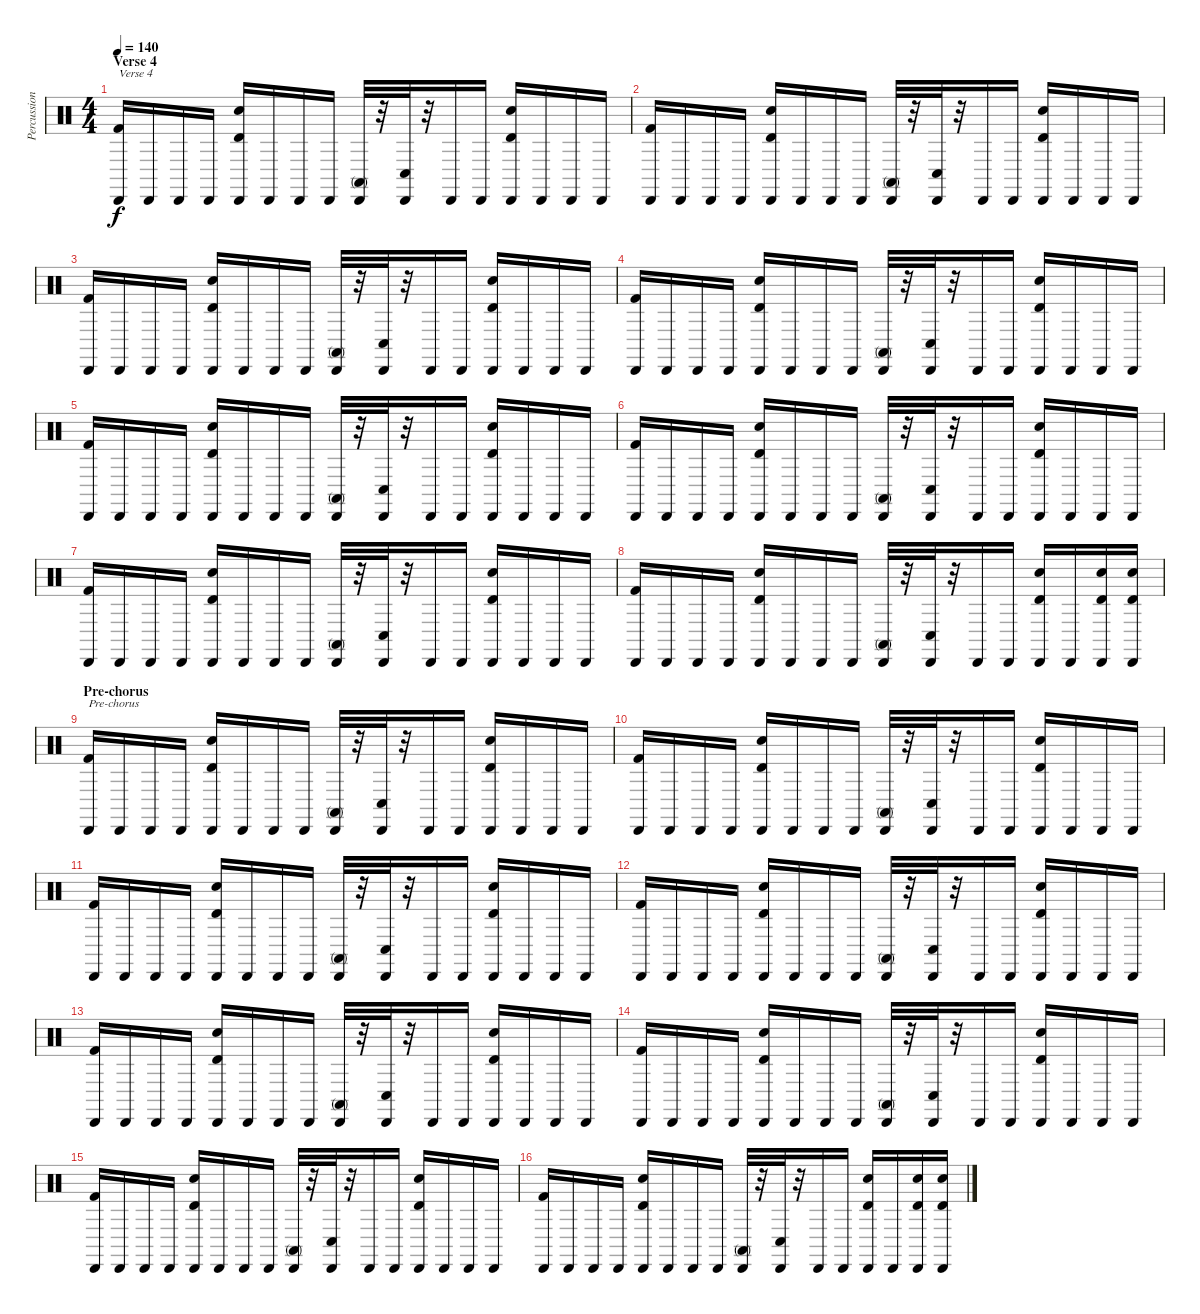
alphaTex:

\track ("Percussions" "Percussion") {instrument percussion}
\staff {score}
\articulation defaults
\ts (4 4)
\section ("" "Verse 4")
\tempo 140
\clef neutral
\ks c
("Kick (hit) 2" "Cabasa (hit)").16{txt "Verse 4" dy f} "Cabasa (hit)".16 "Cabasa (hit)".16 "Cabasa (hit)".16 ("Timbale high (hit)" "Electric Snare (hit)" "Cabasa (hit)").16 "Cabasa (hit)".16 "Cabasa (hit)".16 "Cabasa (hit)".16 ("Conga high (mute)" "Cabasa (hit)").32 r.32 ("Conga low (hit)" "Cabasa (hit)").32 r.32 "Cabasa (hit)".16 "Cabasa (hit)".16 ("Electric Snare (hit)" "Timbale high (hit)" "Cabasa (hit)").16 "Cabasa (hit)".16 "Cabasa (hit)".16 "Cabasa (hit)".16 |
("Kick (hit) 2" "Cabasa (hit)").16 "Cabasa (hit)".16 "Cabasa (hit)".16 "Cabasa (hit)".16 ("Timbale high (hit)" "Electric Snare (hit)" "Cabasa (hit)").16 "Cabasa (hit)".16 "Cabasa (hit)".16 "Cabasa (hit)".16 ("Conga high (mute)" "Cabasa (hit)").32 r.32 ("Conga low (hit)" "Cabasa (hit)").32 r.32 "Cabasa (hit)".16 "Cabasa (hit)".16 ("Electric Snare (hit)" "Timbale high (hit)" "Cabasa (hit)").16 "Cabasa (hit)".16 "Cabasa (hit)".16 "Cabasa (hit)".16 |
("Kick (hit) 2" "Cabasa (hit)").16 "Cabasa (hit)".16 "Cabasa (hit)".16 "Cabasa (hit)".16 ("Timbale high (hit)" "Electric Snare (hit)" "Cabasa (hit)").16 "Cabasa (hit)".16 "Cabasa (hit)".16 "Cabasa (hit)".16 ("Conga high (mute)" "Cabasa (hit)").32 r.32 ("Conga low (hit)" "Cabasa (hit)").32 r.32 "Cabasa (hit)".16 "Cabasa (hit)".16 ("Electric Snare (hit)" "Timbale high (hit)" "Cabasa (hit)").16 "Cabasa (hit)".16 "Cabasa (hit)".16 "Cabasa (hit)".16 |
("Kick (hit) 2" "Cabasa (hit)").16 "Cabasa (hit)".16 "Cabasa (hit)".16 "Cabasa (hit)".16 ("Timbale high (hit)" "Electric Snare (hit)" "Cabasa (hit)").16 "Cabasa (hit)".16 "Cabasa (hit)".16 "Cabasa (hit)".16 ("Conga high (mute)" "Cabasa (hit)").32 r.32 ("Conga low (hit)" "Cabasa (hit)").32 r.32 "Cabasa (hit)".16 "Cabasa (hit)".16 ("Electric Snare (hit)" "Timbale high (hit)" "Cabasa (hit)").16 "Cabasa (hit)".16 "Cabasa (hit)".16 "Cabasa (hit)".16 |
("Kick (hit) 2" "Cabasa (hit)").16 "Cabasa (hit)".16 "Cabasa (hit)".16 "Cabasa (hit)".16 ("Timbale high (hit)" "Electric Snare (hit)" "Cabasa (hit)").16 "Cabasa (hit)".16 "Cabasa (hit)".16 "Cabasa (hit)".16 ("Conga high (mute)" "Cabasa (hit)").32 r.32 ("Conga low (hit)" "Cabasa (hit)").32 r.32 "Cabasa (hit)".16 "Cabasa (hit)".16 ("Electric Snare (hit)" "Timbale high (hit)" "Cabasa (hit)").16 "Cabasa (hit)".16 "Cabasa (hit)".16 "Cabasa (hit)".16 |
("Kick (hit) 2" "Cabasa (hit)").16 "Cabasa (hit)".16 "Cabasa (hit)".16 "Cabasa (hit)".16 ("Timbale high (hit)" "Electric Snare (hit)" "Cabasa (hit)").16 "Cabasa (hit)".16 "Cabasa (hit)".16 "Cabasa (hit)".16 ("Conga high (mute)" "Cabasa (hit)").32 r.32 ("Conga low (hit)" "Cabasa (hit)").32 r.32 "Cabasa (hit)".16 "Cabasa (hit)".16 ("Electric Snare (hit)" "Timbale high (hit)" "Cabasa (hit)").16 "Cabasa (hit)".16 "Cabasa (hit)".16 "Cabasa (hit)".16 |
("Kick (hit) 2" "Cabasa (hit)").16 "Cabasa (hit)".16 "Cabasa (hit)".16 "Cabasa (hit)".16 ("Timbale high (hit)" "Electric Snare (hit)" "Cabasa (hit)").16 "Cabasa (hit)".16 "Cabasa (hit)".16 "Cabasa (hit)".16 ("Conga high (mute)" "Cabasa (hit)").32 r.32 ("Conga low (hit)" "Cabasa (hit)").32 r.32 "Cabasa (hit)".16 "Cabasa (hit)".16 ("Electric Snare (hit)" "Timbale high (hit)" "Cabasa (hit)").16 "Cabasa (hit)".16 "Cabasa (hit)".16 "Cabasa (hit)".16 |
("Kick (hit) 2" "Cabasa (hit)").16 "Cabasa (hit)".16 "Cabasa (hit)".16 "Cabasa (hit)".16 ("Timbale high (hit)" "Electric Snare (hit)" "Cabasa (hit)").16 "Cabasa (hit)".16 "Cabasa (hit)".16 "Cabasa (hit)".16 ("Conga high (mute)" "Cabasa (hit)").32 r.32 ("Conga low (hit)" "Cabasa (hit)").32 r.32 "Cabasa (hit)".16 "Cabasa (hit)".16 ("Electric Snare (hit)" "Timbale high (hit)" "Cabasa (hit)").16 "Cabasa (hit)".16 ("Timbale high (hit)" "Electric Snare (hit)" "Cabasa (hit)").16 ("Timbale high (hit)" "Electric Snare (hit)" "Cabasa (hit)").16 |
\section ("" "Pre-chorus")
("Kick (hit) 2" "Cabasa (hit)").16{txt "Pre-chorus"} "Cabasa (hit)".16 "Cabasa (hit)".16 "Cabasa (hit)".16 ("Timbale high (hit)" "Electric Snare (hit)" "Cabasa (hit)").16 "Cabasa (hit)".16 "Cabasa (hit)".16 "Cabasa (hit)".16 ("Conga high (mute)" "Cabasa (hit)").32 r.32 ("Conga low (hit)" "Cabasa (hit)").32 r.32 "Cabasa (hit)".16 "Cabasa (hit)".16 ("Electric Snare (hit)" "Timbale high (hit)" "Cabasa (hit)").16 "Cabasa (hit)".16 "Cabasa (hit)".16 "Cabasa (hit)".16 |
("Kick (hit) 2" "Cabasa (hit)").16 "Cabasa (hit)".16 "Cabasa (hit)".16 "Cabasa (hit)".16 ("Timbale high (hit)" "Electric Snare (hit)" "Cabasa (hit)").16 "Cabasa (hit)".16 "Cabasa (hit)".16 "Cabasa (hit)".16 ("Conga high (mute)" "Cabasa (hit)").32 r.32 ("Conga low (hit)" "Cabasa (hit)").32 r.32 "Cabasa (hit)".16 "Cabasa (hit)".16 ("Electric Snare (hit)" "Timbale high (hit)" "Cabasa (hit)").16 "Cabasa (hit)".16 "Cabasa (hit)".16 "Cabasa (hit)".16 |
("Kick (hit) 2" "Cabasa (hit)").16 "Cabasa (hit)".16 "Cabasa (hit)".16 "Cabasa (hit)".16 ("Timbale high (hit)" "Electric Snare (hit)" "Cabasa (hit)").16 "Cabasa (hit)".16 "Cabasa (hit)".16 "Cabasa (hit)".16 ("Conga high (mute)" "Cabasa (hit)").32 r.32 ("Conga low (hit)" "Cabasa (hit)").32 r.32 "Cabasa (hit)".16 "Cabasa (hit)".16 ("Electric Snare (hit)" "Timbale high (hit)" "Cabasa (hit)").16 "Cabasa (hit)".16 "Cabasa (hit)".16 "Cabasa (hit)".16 |
("Kick (hit) 2" "Cabasa (hit)").16 "Cabasa (hit)".16 "Cabasa (hit)".16 "Cabasa (hit)".16 ("Timbale high (hit)" "Electric Snare (hit)" "Cabasa (hit)").16 "Cabasa (hit)".16 "Cabasa (hit)".16 "Cabasa (hit)".16 ("Conga high (mute)" "Cabasa (hit)").32 r.32 ("Conga low (hit)" "Cabasa (hit)").32 r.32 "Cabasa (hit)".16 "Cabasa (hit)".16 ("Electric Snare (hit)" "Timbale high (hit)" "Cabasa (hit)").16 "Cabasa (hit)".16 "Cabasa (hit)".16 "Cabasa (hit)".16 |
("Kick (hit) 2" "Cabasa (hit)").16 "Cabasa (hit)".16 "Cabasa (hit)".16 "Cabasa (hit)".16 ("Timbale high (hit)" "Electric Snare (hit)" "Cabasa (hit)").16 "Cabasa (hit)".16 "Cabasa (hit)".16 "Cabasa (hit)".16 ("Conga high (mute)" "Cabasa (hit)").32 r.32 ("Conga low (hit)" "Cabasa (hit)").32 r.32 "Cabasa (hit)".16 "Cabasa (hit)".16 ("Electric Snare (hit)" "Timbale high (hit)" "Cabasa (hit)").16 "Cabasa (hit)".16 "Cabasa (hit)".16 "Cabasa (hit)".16 |
("Kick (hit) 2" "Cabasa (hit)").16 "Cabasa (hit)".16 "Cabasa (hit)".16 "Cabasa (hit)".16 ("Timbale high (hit)" "Electric Snare (hit)" "Cabasa (hit)").16 "Cabasa (hit)".16 "Cabasa (hit)".16 "Cabasa (hit)".16 ("Conga high (mute)" "Cabasa (hit)").32 r.32 ("Conga low (hit)" "Cabasa (hit)").32 r.32 "Cabasa (hit)".16 "Cabasa (hit)".16 ("Electric Snare (hit)" "Timbale high (hit)" "Cabasa (hit)").16 "Cabasa (hit)".16 "Cabasa (hit)".16 "Cabasa (hit)".16 |
("Kick (hit) 2" "Cabasa (hit)").16 "Cabasa (hit)".16 "Cabasa (hit)".16 "Cabasa (hit)".16 ("Timbale high (hit)" "Electric Snare (hit)" "Cabasa (hit)").16 "Cabasa (hit)".16 "Cabasa (hit)".16 "Cabasa (hit)".16 ("Conga high (mute)" "Cabasa (hit)").32 r.32 ("Conga low (hit)" "Cabasa (hit)").32 r.32 "Cabasa (hit)".16 "Cabasa (hit)".16 ("Electric Snare (hit)" "Timbale high (hit)" "Cabasa (hit)").16 "Cabasa (hit)".16 "Cabasa (hit)".16 "Cabasa (hit)".16 |
("Kick (hit) 2" "Cabasa (hit)").16 "Cabasa (hit)".16 "Cabasa (hit)".16 "Cabasa (hit)".16 ("Timbale high (hit)" "Electric Snare (hit)" "Cabasa (hit)").16 "Cabasa (hit)".16 "Cabasa (hit)".16 "Cabasa (hit)".16 ("Conga high (mute)" "Cabasa (hit)").32 r.32 ("Conga low (hit)" "Cabasa (hit)").32 r.32 "Cabasa (hit)".16 "Cabasa (hit)".16 ("Electric Snare (hit)" "Timbale high (hit)" "Cabasa (hit)").16 "Cabasa (hit)".16 ("Electric Snare (hit)" "Timbale high (hit)" "Cabasa (hit)").16 ("Electric Snare (hit)" "Timbale high (hit)" "Cabasa (hit)").16
